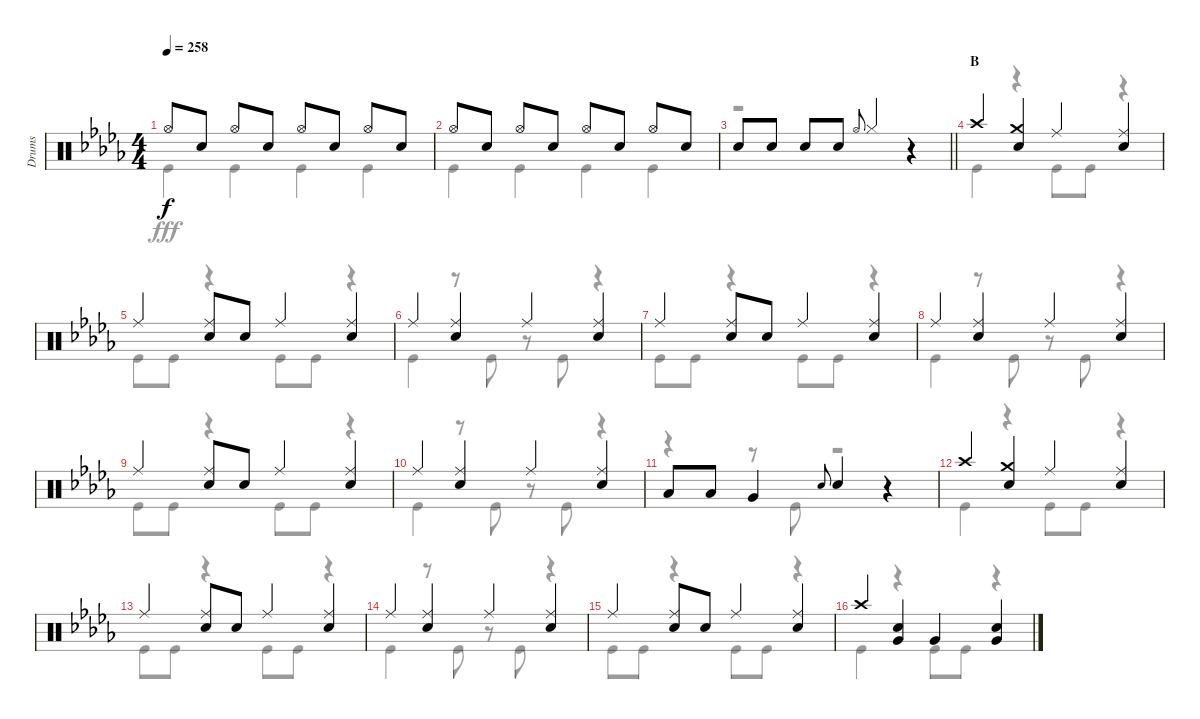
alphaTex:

\track ("Drums" "Drums") {instrument percussion}
\staff {score}
\articulation defaults
\voice
\ts (4 4)
\tempo 258
\clef neutral
\ks db "Hi-Hat (open)".8{dy f} "Snare (hit) 2".8 "Hi-Hat (open)".8 "Snare (hit) 2".8 "Hi-Hat (open)".8 "Snare (hit) 2".8 "Hi-Hat (open)".8 "Snare (hit) 2".8
|
"Hi-Hat (open)".8 "Snare (hit) 2".8 "Hi-Hat (open)".8 "Snare (hit) 2".8 "Hi-Hat (open)".8 "Snare (hit) 2".8 "Hi-Hat (open)".8 "Snare (hit) 2".8 |
\barLineRight lightlight "Snare (hit) 2".8 "Snare (hit) 2".8 "Snare (hit) 2".8 "Snare (hit) 2".8 "Hi-Hat (open)".8{gr onbeat} "Hi-Hat (closed)".4
r.4 |
\section ("" "B")
"Crash high (hit)".4 ("Crash medium (hit)" "Snare (hit) 2").4 "Ride (middle)".4 ("Ride (middle)" "Snare (hit) 2").4 |
"Ride (middle)".4 ("Ride (middle)" "Snare (hit) 2").8 "Snare (hit) 2".8 "Ride (middle)".4 ("Ride (middle)" "Snare (hit) 2").4 |
"Ride (middle)".4 ("Ride (middle)" "Snare (hit) 2").4 "Ride (middle)".4 ("Ride (middle)" "Snare (hit) 2").4 |
"Ride (middle)".4 ("Ride (middle)" "Snare (hit) 2").8 "Snare (hit) 2".8 "Ride (middle)".4 ("Ride (middle)" "Snare (hit) 2").4 |
"Ride (middle)".4 ("Ride (middle)" "Snare (hit) 2").4 "Ride (middle)".4 ("Ride (middle)" "Snare (hit) 2").4 |
"Ride (middle)".4 ("Ride (middle)" "Snare (hit) 2").8 "Snare (hit) 2".8 "Ride (middle)".4 ("Ride (middle)" "Snare (hit) 2").4 |
"Ride (middle)".4 ("Ride (middle)" "Snare (hit) 2").4 "Ride (middle)".4 ("Ride (middle)" "Snare (hit) 2").4 |
"Low Tom (hit)".8 "Low Tom (hit)".8 "Very Low Tom (hit)".4 "Snare (hit) 2".8{gr onbeat} "Snare (hit) 2".4 r.4 |
"Crash high (hit)".4 ("Crash medium (hit)" "Snare (hit) 2").4 "Ride (middle)".4 ("Ride (middle)" "Snare (hit) 2").4 |
"Ride (middle)".4 ("Ride (middle)" "Snare (hit) 2").8 "Snare (hit) 2".8 "Ride (middle)".4 ("Ride (middle)" "Snare (hit) 2").4 |
"Ride (middle)".4 ("Ride (middle)" "Snare (hit) 2").4 "Ride (middle)".4 ("Ride (middle)" "Snare (hit) 2").4 |
"Ride (middle)".4 ("Ride (middle)" "Snare (hit) 2").8 "Snare (hit) 2".8 "Ride (middle)".4 ("Ride (middle)" "Snare (hit) 2").4 |
"Crash high (hit)".4 ("Snare (hit) 2" "Very Low Tom (hit)").4 "Very Low Tom (hit)".4 ("Snare (hit) 2" "Very Low Tom (hit)").4
\voice
\clef neutral
\ottava regular
\simile none
\ks db "Kick (hit)".4{dy fff} "Kick (hit)".4 "Kick (hit)".4 "Kick (hit)".4
|
"Kick (hit)".4 "Kick (hit)".4 "Kick (hit)".4 "Kick (hit)".4 |
\barLineRight lightlight
r.1 |
"Kick (hit)".4 r.4 "Kick (hit)".8 "Kick (hit)".8 r.4 |
"Kick (hit)".8 "Kick (hit)".8 r.4 "Kick (hit)".8 "Kick (hit)".8 r.4 |
"Kick (hit)".4 r.8 "Kick (hit)".8 r.8 "Kick (hit)".8 r.4 |
"Kick (hit)".8 "Kick (hit)".8 r.4 "Kick (hit)".8 "Kick (hit)".8 r.4 |
"Kick (hit)".4 r.8 "Kick (hit)".8 r.8 "Kick (hit)".8 r.4 |
"Kick (hit)".8 "Kick (hit)".8 r.4 "Kick (hit)".8 "Kick (hit)".8 r.4 |
"Kick (hit)".4 r.8 "Kick (hit)".8 r.8 "Kick (hit)".8 r.4 |
r.4 r.8 "Kick (hit)".8 r.2 |
"Kick (hit)".4 r.4 "Kick (hit)".8 "Kick (hit)".8 r.4 |
"Kick (hit)".8 "Kick (hit)".8 r.4 "Kick (hit)".8 "Kick (hit)".8 r.4 |
"Kick (hit)".4 r.8 "Kick (hit)".8 r.8 "Kick (hit)".8 r.4 |
"Kick (hit)".8 "Kick (hit)".8 r.4 "Kick (hit)".8 "Kick (hit)".8 r.4 |
"Kick (hit)".4 r.4 "Kick (hit)".8 "Kick (hit)".8 r.4
